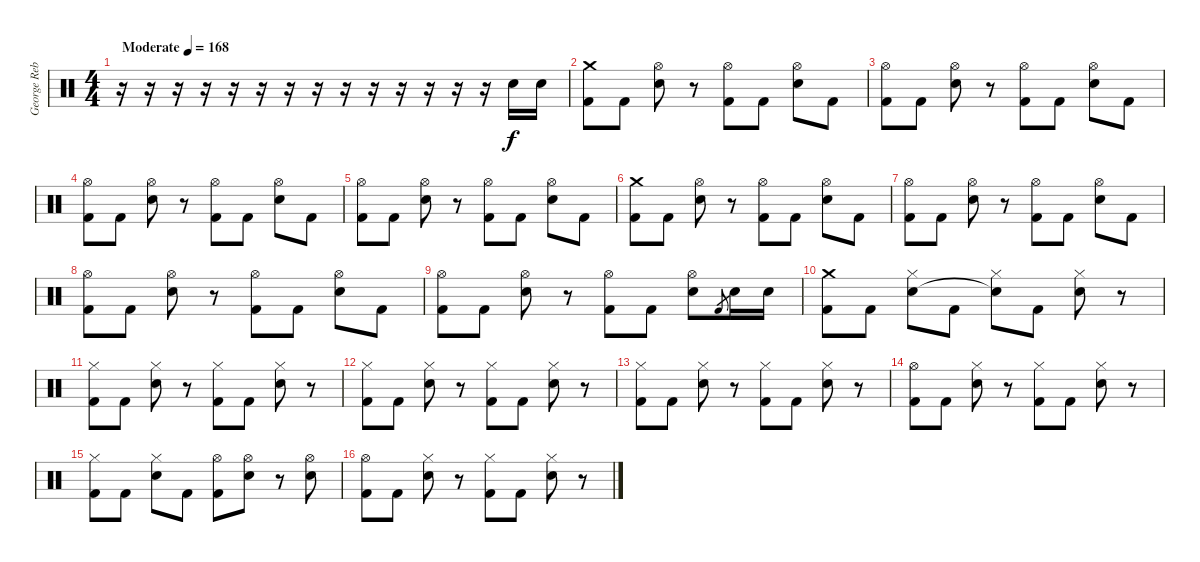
\track ("George Rebelo" "George Reb") {instrument percussion}
\staff {score}
\articulation defaults
\ts (4 4)
\tempo (168 "Moderate")
\clef neutral
\ks c
r.16{dy f} r.16 r.16 r.16 r.16 r.16 r.16 r.16 r.16 r.16 r.16 r.16 r.16 r.16 "Electric Snare (hit)".16 "Electric Snare (hit)".16 |
("Crash medium (hit)" "Kick (hit) 2").8 "Kick (hit) 2".8 ("Hi-Hat (open)" "Electric Snare (hit)").8 r.8 ("Hi-Hat (open)" "Kick (hit) 2").8 "Kick (hit) 2".8 ("Hi-Hat (open)" "Electric Snare (hit)").8 "Kick (hit) 2".8 |
("Hi-Hat (open)" "Kick (hit) 2").8 "Kick (hit) 2".8 ("Hi-Hat (open)" "Electric Snare (hit)").8 r.8 ("Hi-Hat (open)" "Kick (hit) 2").8 "Kick (hit) 2".8 ("Hi-Hat (open)" "Electric Snare (hit)").8 "Kick (hit) 2".8 |
("Hi-Hat (open)" "Kick (hit) 2").8 "Kick (hit) 2".8 ("Hi-Hat (open)" "Electric Snare (hit)").8 r.8 ("Hi-Hat (open)" "Kick (hit) 2").8 "Kick (hit) 2".8 ("Hi-Hat (open)" "Electric Snare (hit)").8 "Kick (hit) 2".8 |
("Hi-Hat (open)" "Kick (hit) 2").8 "Kick (hit) 2".8 ("Hi-Hat (open)" "Electric Snare (hit)").8 r.8 ("Hi-Hat (open)" "Kick (hit) 2").8 "Kick (hit) 2".8 ("Hi-Hat (open)" "Electric Snare (hit)").8 "Kick (hit) 2".8 |
("Crash medium (hit)" "Kick (hit) 2").8 "Kick (hit) 2".8 ("Hi-Hat (open)" "Electric Snare (hit)").8 r.8 ("Hi-Hat (open)" "Kick (hit) 2").8 "Kick (hit) 2".8 ("Hi-Hat (open)" "Electric Snare (hit)").8 "Kick (hit) 2".8 |
("Hi-Hat (open)" "Kick (hit) 2").8 "Kick (hit) 2".8 ("Hi-Hat (open)" "Electric Snare (hit)").8 r.8 ("Hi-Hat (open)" "Kick (hit) 2").8 "Kick (hit) 2".8 ("Hi-Hat (open)" "Electric Snare (hit)").8 "Kick (hit) 2".8 |
("Hi-Hat (open)" "Kick (hit) 2").8 "Kick (hit) 2".8 ("Hi-Hat (open)" "Electric Snare (hit)").8 r.8 ("Hi-Hat (open)" "Kick (hit) 2").8 "Kick (hit) 2".8 ("Hi-Hat (open)" "Electric Snare (hit)").8 "Kick (hit) 2".8 |
("Hi-Hat (open)" "Kick (hit) 2").8 "Kick (hit) 2".8 ("Hi-Hat (open)" "Electric Snare (hit)").8 r.8 ("Hi-Hat (open)" "Kick (hit) 2").8 "Kick (hit) 2".8 ("Hi-Hat (open)" "Electric Snare (hit)").8 "Kick (hit) 2".8{gr} "Electric Snare (hit)".16 "Electric Snare (hit)".16 |
("Crash medium (hit)" "Kick (hit) 2").8 "Kick (hit) 2".8 ("Hi-Hat (closed)" "Electric Snare (hit)").8 "Kick (hit) 2".8 ("Hi-Hat (closed)" "Snare (hit)"{t}).8 "Kick (hit) 2".8 ("Hi-Hat (closed)" "Electric Snare (hit)").8 r.8 |
("Hi-Hat (closed)" "Kick (hit) 2").8 "Kick (hit) 2".8 ("Hi-Hat (closed)" "Electric Snare (hit)").8 r.8 ("Hi-Hat (closed)" "Kick (hit) 2").8 "Kick (hit) 2".8 ("Hi-Hat (closed)" "Electric Snare (hit)").8 r.8 |
("Hi-Hat (closed)" "Kick (hit) 2").8 "Kick (hit) 2".8 ("Hi-Hat (closed)" "Electric Snare (hit)").8 r.8 ("Hi-Hat (closed)" "Kick (hit) 2").8 "Kick (hit) 2".8 ("Hi-Hat (closed)" "Electric Snare (hit)").8 r.8 |
("Hi-Hat (closed)" "Kick (hit) 2").8 "Kick (hit) 2".8 ("Hi-Hat (closed)" "Electric Snare (hit)").8 r.8 ("Hi-Hat (closed)" "Kick (hit) 2").8 "Kick (hit) 2".8 ("Hi-Hat (closed)" "Electric Snare (hit)").8 r.8 |
("Hi-Hat (open)" "Kick (hit) 2").8 "Kick (hit) 2".8 ("Hi-Hat (closed)" "Electric Snare (hit)").8 r.8 ("Hi-Hat (closed)" "Kick (hit) 2").8 "Kick (hit) 2".8 ("Hi-Hat (closed)" "Electric Snare (hit)").8 r.8 |
("Hi-Hat (closed)" "Kick (hit) 2").8 "Kick (hit) 2".8 ("Hi-Hat (closed)" "Electric Snare (hit)").8 "Kick (hit) 2".8 ("Hi-Hat (open)" "Kick (hit) 2").8 ("Hi-Hat (open)" "Electric Snare (hit)").8 r.8 ("Hi-Hat (open)" "Electric Snare (hit)").8 |
("Hi-Hat (open)" "Kick (hit) 2").8 "Kick (hit) 2".8 ("Hi-Hat (closed)" "Electric Snare (hit)").8 r.8 ("Hi-Hat (closed)" "Kick (hit) 2").8 "Kick (hit) 2".8 ("Hi-Hat (closed)" "Electric Snare (hit)").8 r.8
